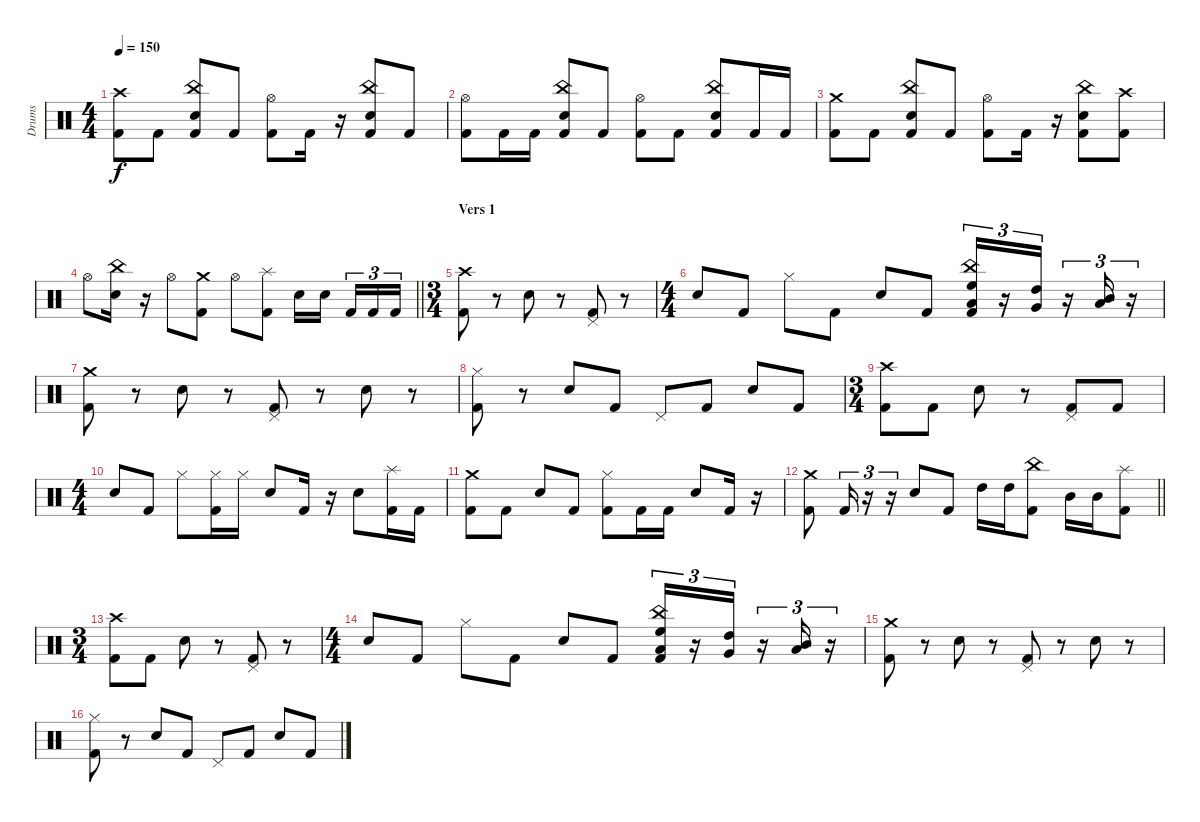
\track ("Drums" "Drums") {instrument percussion}
\staff {score}
\articulation defaults
\ts (4 4)
\tempo 150
\clef neutral
\ks c
("Crash high (hit)" "Kick (hit) 2").8{dy f} "Kick (hit) 2".8 ("China (hit)" "Snare (hit) 2" "Kick (hit) 2").8 "Kick (hit) 2".8 ("Hi-Hat (open)" "Kick (hit) 2").8 "Kick (hit) 2".16 r.16 ("China (hit)" "Snare (hit) 2" "Kick (hit) 2").8 "Kick (hit) 2".8 |
("Hi-Hat (open)" "Kick (hit) 2").8 "Kick (hit) 2".16 "Kick (hit) 2".16 ("China (hit)" "Snare (hit) 2" "Kick (hit) 2").8 "Kick (hit) 2".8 ("Hi-Hat (open)" "Kick (hit) 2").8 "Kick (hit) 2".8 ("China (hit)" "Snare (hit) 2" "Kick (hit) 2").8 "Kick (hit) 2".16 "Kick (hit) 2".16 |
("Crash medium (hit)" "Kick (hit) 2").8 "Kick (hit) 2".8 ("China (hit)" "Snare (hit) 2" "Kick (hit) 2").8 "Kick (hit) 2".8 ("Hi-Hat (open)" "Kick (hit) 2").8 "Kick (hit) 2".16 r.16 ("China (hit)" "Snare (hit) 2" "Kick (hit) 2").8 ("Crash high (hit)" "Kick (hit) 2").8 |
\barLineRight lightlight "Hi-Hat (open)".8
("China (hit)" "Snare (hit) 2").16 r.16 "Hi-Hat (open)".8 ("Crash medium (hit)" "Kick (hit) 2").8 "Hi-Hat (open)".8 ("Splash (hit)" "Kick (hit) 2").8 "Snare (hit) 2".16 "Snare (hit) 2".16{beam splitsecondary} "Kick (hit) 2".16{tu (3 2)} "Kick (hit) 2".16{tu (3 2)} "Kick (hit) 2".16{tu (3 2)} |
\ts (3 4)
\section ("" "Vers 1")
("Crash high (hit)" "Kick (hit) 2").8 r.8 "Snare (hit) 2".8 r.8 ("Pedal Hi-Hat (hit)" "Kick (hit) 2").8 r.8 |
\ts (4 4)
"Snare (hit) 2".8 "Kick (hit) 2".8 "Hi-Hat (closed)".8 "Kick (hit) 2".8 "Snare (hit) 2".8 "Kick (hit) 2".8 ("China (hit)" "High Floor Tom (hit)" "Low Tom (hit)" "Kick (hit) 2").16{tu (3 2)} r.16{tu (3 2)} ("High Tom (hit)" "Very Low Tom (hit)").16{tu (3 2)} r.16{tu (3 2)} ("Mid Tom (hit)" "Low Floor Tom (hit)").16{tu (3 2)} r.16{tu (3 2)} |
("Crash medium (hit)" "Kick (hit) 2").8 r.8 "Snare (hit) 2".8 r.8 ("Pedal Hi-Hat (hit)" "Kick (hit) 2").8 r.8 "Snare (hit) 2".8 r.8 |
("Hi-Hat (closed)" "Kick (hit) 2").8 r.8 "Snare (hit) 2".8 "Kick (hit) 2".8 "Pedal Hi-Hat (hit)".8 "Kick (hit) 2".8 "Snare (hit) 2".8 "Kick (hit) 2".8 |
\ts (3 4)
("Crash high (hit)" "Kick (hit) 2").8 "Kick (hit) 2".8 "Snare (hit) 2".8 r.8 ("Pedal Hi-Hat (hit)" "Kick (hit) 2").8 "Kick (hit) 2".8 |
\ts (4 4)
"Snare (hit) 2".8 "Kick (hit) 2".8 "Hi-Hat (closed)".8 ("Hi-Hat (closed)" "Kick (hit) 2").16 "Hi-Hat (closed)".16 "Snare (hit) 2".8 "Kick (hit) 2".16 r.16 "Snare (hit) 2".8 ("Splash (hit)" "Kick (hit) 2").16 "Kick (hit) 2".16 |
("Crash medium (hit)" "Kick (hit) 2").8 "Kick (hit) 2".8 "Snare (hit) 2".8 "Kick (hit) 2".8 ("Hi-Hat (closed)" "Kick (hit) 2").8 "Kick (hit) 2".16 "Kick (hit) 2".16 "Snare (hit) 2".8 "Kick (hit) 2".16 r.16 |
\barLineRight lightlight
("Crash medium (hit)" "Kick (hit) 2").8 "Kick (hit) 2".16{tu (3 2)} r.16{tu (3 2)} r.16{tu (3 2)} "Snare (hit) 2".8 "Kick (hit) 2".8 "High Tom (hit)".16 "High Tom (hit)".16 ("China (hit)" "Kick (hit) 2").8 "Mid Tom (hit)".16 "Mid Tom (hit)".16 ("Splash (hit)" "Kick (hit) 2").8 |
\ts (3 4)
("Crash high (hit)" "Kick (hit) 2").8 "Kick (hit) 2".8 "Snare (hit) 2".8 r.8 ("Pedal Hi-Hat (hit)" "Kick (hit) 2").8 r.8 |
\ts (4 4)
"Snare (hit) 2".8 "Kick (hit) 2".8 "Hi-Hat (closed)".8 "Kick (hit) 2".8 "Snare (hit) 2".8 "Kick (hit) 2".8 ("China (hit)" "High Floor Tom (hit)" "Low Tom (hit)" "Kick (hit) 2").16{tu (3 2)} r.16{tu (3 2)} ("High Tom (hit)" "Very Low Tom (hit)").16{tu (3 2)} r.16{tu (3 2)} ("Mid Tom (hit)" "Low Floor Tom (hit)").16{tu (3 2)} r.16{tu (3 2)} |
("Crash medium (hit)" "Kick (hit) 2").8 r.8 "Snare (hit) 2".8 r.8 ("Pedal Hi-Hat (hit)" "Kick (hit) 2").8 r.8 "Snare (hit) 2".8 r.8 |
("Hi-Hat (closed)" "Kick (hit) 2").8 r.8 "Snare (hit) 2".8 "Kick (hit) 2".8 "Pedal Hi-Hat (hit)".8 "Kick (hit) 2".8 "Snare (hit) 2".8 "Kick (hit) 2".8
